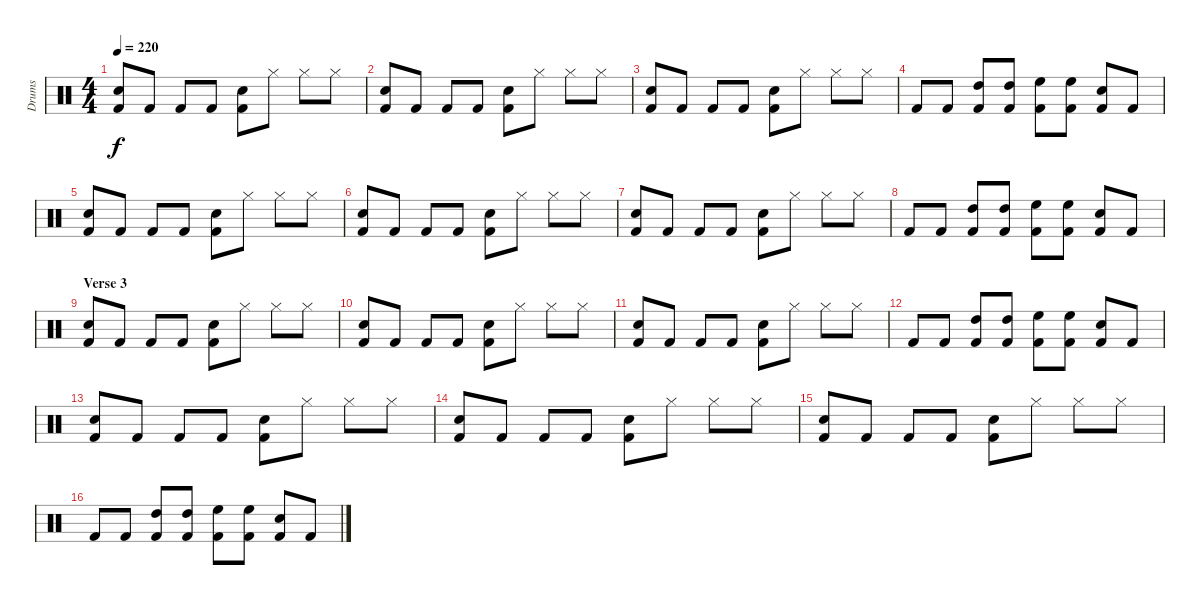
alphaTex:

\track ("Drums" "Drums") {instrument percussion}
\staff {score}
\articulation defaults
\ts (4 4)
\tempo 220
\clef neutral
\ks c
("Kick (hit) 2" "Snare (hit) 2").8{dy f} "Kick (hit) 2".8 "Kick (hit) 2".8 "Kick (hit) 2".8 ("Kick (hit) 2" "Snare (hit) 2").8 "Hi-Hat (closed)".8 "Hi-Hat (closed)".8 "Hi-Hat (closed)".8 |
("Kick (hit) 2" "Snare (hit) 2").8 "Kick (hit) 2".8 "Kick (hit) 2".8 "Kick (hit) 2".8 ("Kick (hit) 2" "Snare (hit) 2").8 "Hi-Hat (closed)".8 "Hi-Hat (closed)".8 "Hi-Hat (closed)".8 |
("Kick (hit) 2" "Snare (hit) 2").8 "Kick (hit) 2".8 "Kick (hit) 2".8 "Kick (hit) 2".8 ("Kick (hit) 2" "Snare (hit) 2").8 "Hi-Hat (closed)".8 "Hi-Hat (closed)".8 "Hi-Hat (closed)".8 |
"Kick (hit) 2".8 "Kick (hit) 2".8 ("High Tom (hit)" "Kick (hit) 2").8 ("High Tom (hit)" "Kick (hit) 2").8 ("High Floor Tom (hit)" "Kick (hit) 2").8 ("High Floor Tom (hit)" "Kick (hit) 2").8 ("Snare (hit) 2" "Kick (hit) 2").8 "Kick (hit) 2".8 |
("Kick (hit) 2" "Snare (hit) 2").8 "Kick (hit) 2".8 "Kick (hit) 2".8 "Kick (hit) 2".8 ("Kick (hit) 2" "Snare (hit) 2").8 "Hi-Hat (closed)".8 "Hi-Hat (closed)".8 "Hi-Hat (closed)".8 |
("Kick (hit) 2" "Snare (hit) 2").8 "Kick (hit) 2".8 "Kick (hit) 2".8 "Kick (hit) 2".8 ("Kick (hit) 2" "Snare (hit) 2").8 "Hi-Hat (closed)".8 "Hi-Hat (closed)".8 "Hi-Hat (closed)".8 |
("Kick (hit) 2" "Snare (hit) 2").8 "Kick (hit) 2".8 "Kick (hit) 2".8 "Kick (hit) 2".8 ("Kick (hit) 2" "Snare (hit) 2").8 "Hi-Hat (closed)".8 "Hi-Hat (closed)".8 "Hi-Hat (closed)".8 |
"Kick (hit) 2".8 "Kick (hit) 2".8 ("High Tom (hit)" "Kick (hit) 2").8 ("High Tom (hit)" "Kick (hit) 2").8 ("High Floor Tom (hit)" "Kick (hit) 2").8 ("High Floor Tom (hit)" "Kick (hit) 2").8 ("Snare (hit) 2" "Kick (hit) 2").8 "Kick (hit) 2".8 |
\section ("" "Verse 3")
("Kick (hit) 2" "Snare (hit) 2").8 "Kick (hit) 2".8 "Kick (hit) 2".8 "Kick (hit) 2".8 ("Kick (hit) 2" "Snare (hit) 2").8 "Hi-Hat (closed)".8 "Hi-Hat (closed)".8 "Hi-Hat (closed)".8 |
("Kick (hit) 2" "Snare (hit) 2").8 "Kick (hit) 2".8 "Kick (hit) 2".8 "Kick (hit) 2".8 ("Kick (hit) 2" "Snare (hit) 2").8 "Hi-Hat (closed)".8 "Hi-Hat (closed)".8 "Hi-Hat (closed)".8 |
("Kick (hit) 2" "Snare (hit) 2").8 "Kick (hit) 2".8 "Kick (hit) 2".8 "Kick (hit) 2".8 ("Kick (hit) 2" "Snare (hit) 2").8 "Hi-Hat (closed)".8 "Hi-Hat (closed)".8 "Hi-Hat (closed)".8 |
"Kick (hit) 2".8 "Kick (hit) 2".8 ("High Tom (hit)" "Kick (hit) 2").8 ("High Tom (hit)" "Kick (hit) 2").8 ("High Floor Tom (hit)" "Kick (hit) 2").8 ("High Floor Tom (hit)" "Kick (hit) 2").8 ("Snare (hit) 2" "Kick (hit) 2").8 "Kick (hit) 2".8 |
("Kick (hit) 2" "Snare (hit) 2").8 "Kick (hit) 2".8 "Kick (hit) 2".8 "Kick (hit) 2".8 ("Kick (hit) 2" "Snare (hit) 2").8 "Hi-Hat (closed)".8 "Hi-Hat (closed)".8 "Hi-Hat (closed)".8 |
("Kick (hit) 2" "Snare (hit) 2").8 "Kick (hit) 2".8 "Kick (hit) 2".8 "Kick (hit) 2".8 ("Kick (hit) 2" "Snare (hit) 2").8 "Hi-Hat (closed)".8 "Hi-Hat (closed)".8 "Hi-Hat (closed)".8 |
("Kick (hit) 2" "Snare (hit) 2").8 "Kick (hit) 2".8 "Kick (hit) 2".8 "Kick (hit) 2".8 ("Kick (hit) 2" "Snare (hit) 2").8 "Hi-Hat (closed)".8 "Hi-Hat (closed)".8 "Hi-Hat (closed)".8 |
"Kick (hit) 2".8 "Kick (hit) 2".8 ("High Tom (hit)" "Kick (hit) 2").8 ("High Tom (hit)" "Kick (hit) 2").8 ("High Floor Tom (hit)" "Kick (hit) 2").8 ("High Floor Tom (hit)" "Kick (hit) 2").8 ("Snare (hit) 2" "Kick (hit) 2").8 "Kick (hit) 2".8
